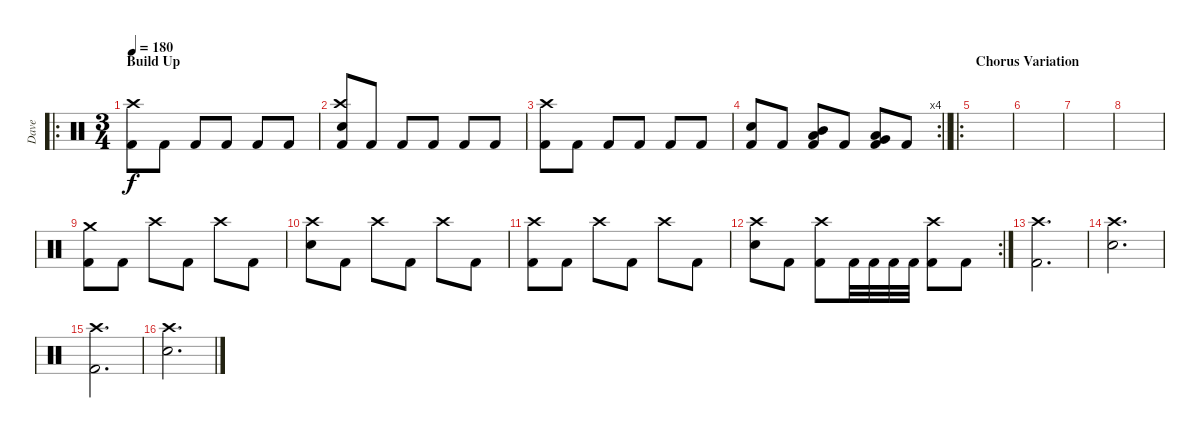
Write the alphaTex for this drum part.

\track ("Dave" "Dave") {instrument percussion}
\staff {score}
\articulation defaults
\ro
\ts (3 4)
\section ("" "Build Up")
\tempo 180
\clef neutral
\ks c
("Kick (hit) 2" "Crash high (hit)").8{dy f} "Kick (hit) 2".8 "Kick (hit) 2".8 "Kick (hit) 2".8 "Kick (hit) 2".8 "Kick (hit) 2".8 |
("Kick (hit) 2" "Electric Snare (hit)" "Crash high (hit)").8 "Kick (hit) 2".8 "Kick (hit) 2".8 "Kick (hit) 2".8 "Kick (hit) 2".8 "Kick (hit) 2".8 |
("Kick (hit) 2" "Crash high (hit)").8 "Kick (hit) 2".8 "Kick (hit) 2".8 "Kick (hit) 2".8 "Kick (hit) 2".8 "Kick (hit) 2".8 |
\rc 4
\barLineRight lightlight
("Kick (hit) 2" "Electric Snare (hit)").8 "Kick (hit) 2".8 ("Kick (hit) 2" "Mid Tom (hit)" "Low Tom (hit)").8 "Kick (hit) 2".8 ("Kick (hit) 2" "Low Tom (hit)" "Very Low Tom (hit)").8 "Kick (hit) 2".8 |
\ro
\section ("" "Chorus Variation")
|
|
|
|
("Kick (hit) 2" "Crash medium (hit)").8 "Kick (hit) 2".8 "Crash high (hit)".8 "Kick (hit) 2".8 "Crash high (hit)".8 "Kick (hit) 2".8 |
("Electric Snare (hit)" "Crash high (hit)").8 "Kick (hit) 2".8 "Crash high (hit)".8 "Kick (hit) 2".8 "Crash high (hit)".8 "Kick (hit) 2".8 |
("Kick (hit) 2" "Crash high (hit)").8 "Kick (hit) 2".8 "Crash high (hit)".8 "Kick (hit) 2".8 "Crash high (hit)".8 "Kick (hit) 2".8 |
\rc 2
("Electric Snare (hit)" "Crash high (hit)").8 "Kick (hit) 2".8 ("Kick (hit) 2" "Crash high (hit)").8 "Kick (hit) 2".32 "Kick (hit) 2".32 "Kick (hit) 2".32 "Kick (hit) 2".32 ("Kick (hit) 2" "Crash high (hit)").8 "Kick (hit) 2".8 |
("Kick (hit) 2" "Crash high (hit)").2{d} |
("Electric Snare (hit)" "Crash high (hit)").2{d} |
("Kick (hit) 2" "Crash high (hit)").2{d} |
("Electric Snare (hit)" "Crash high (hit)").2{d}
